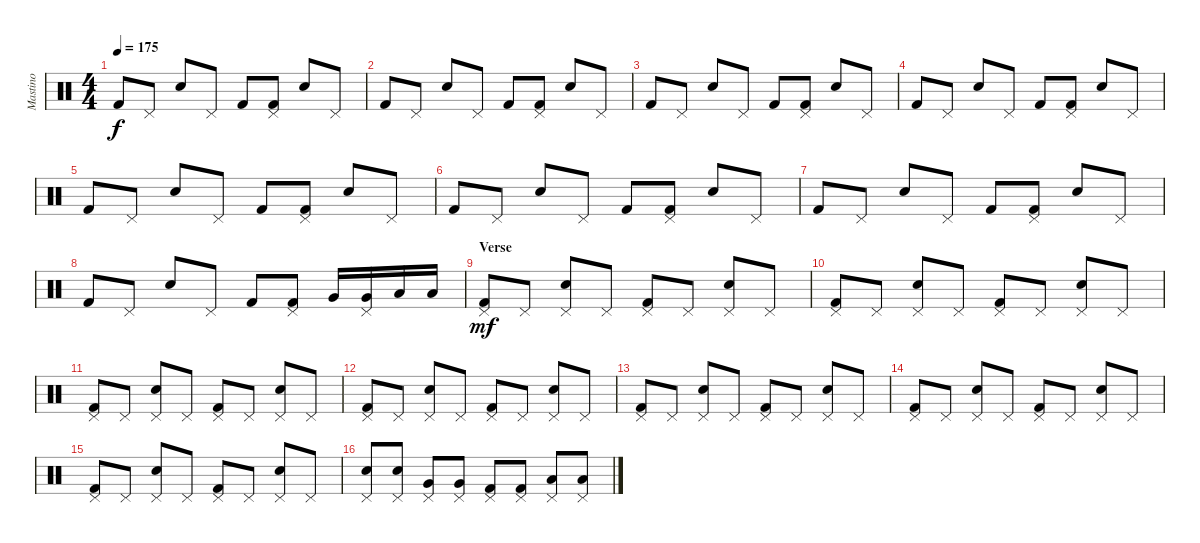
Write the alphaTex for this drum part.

\track ("Mastino" "Mastino") {instrument percussion}
\staff {score}
\articulation defaults
\ts (4 4)
\tempo 175
\clef neutral
\ks c "Kick (hit) 2".8{dy f} "Pedal Hi-Hat (hit)".8 "Electric Snare (hit)".8 "Pedal Hi-Hat (hit)".8 "Kick (hit) 2".8
("Pedal Hi-Hat (hit)" "Kick (hit) 2").8 "Electric Snare (hit)".8 "Pedal Hi-Hat (hit)".8 |
"Kick (hit) 2".8 "Pedal Hi-Hat (hit)".8 "Electric Snare (hit)".8 "Pedal Hi-Hat (hit)".8 "Kick (hit) 2".8 ("Pedal Hi-Hat (hit)" "Kick (hit) 2").8 "Electric Snare (hit)".8 "Pedal Hi-Hat (hit)".8 |
"Kick (hit) 2".8 "Pedal Hi-Hat (hit)".8 "Electric Snare (hit)".8 "Pedal Hi-Hat (hit)".8 "Kick (hit) 2".8 ("Pedal Hi-Hat (hit)" "Kick (hit) 2").8 "Electric Snare (hit)".8 "Pedal Hi-Hat (hit)".8 |
"Kick (hit) 2".8 "Pedal Hi-Hat (hit)".8 "Electric Snare (hit)".8 "Pedal Hi-Hat (hit)".8 "Kick (hit) 2".8 ("Pedal Hi-Hat (hit)" "Kick (hit) 2").8 "Electric Snare (hit)".8 "Pedal Hi-Hat (hit)".8 |
"Kick (hit) 2".8 "Pedal Hi-Hat (hit)".8 "Electric Snare (hit)".8 "Pedal Hi-Hat (hit)".8 "Kick (hit) 2".8 ("Pedal Hi-Hat (hit)" "Kick (hit) 2").8 "Electric Snare (hit)".8 "Pedal Hi-Hat (hit)".8 |
"Kick (hit) 2".8 "Pedal Hi-Hat (hit)".8 "Electric Snare (hit)".8 "Pedal Hi-Hat (hit)".8 "Kick (hit) 2".8 ("Pedal Hi-Hat (hit)" "Kick (hit) 2").8 "Electric Snare (hit)".8 "Pedal Hi-Hat (hit)".8 |
"Kick (hit) 2".8 "Pedal Hi-Hat (hit)".8 "Electric Snare (hit)".8 "Pedal Hi-Hat (hit)".8 "Kick (hit) 2".8 ("Pedal Hi-Hat (hit)" "Kick (hit) 2").8 "Electric Snare (hit)".8 "Pedal Hi-Hat (hit)".8 |
"Kick (hit) 2".8 "Pedal Hi-Hat (hit)".8 "Electric Snare (hit)".8 "Pedal Hi-Hat (hit)".8 "Kick (hit) 2".8 ("Pedal Hi-Hat (hit)" "Kick (hit) 2").8 "Very Low Tom (hit)".16 ("Pedal Hi-Hat (hit)" "Very Low Tom (hit)").16 "Low Floor Tom (hit)".16 "Low Floor Tom (hit)".16 |
\section ("" "Verse")
("Pedal Hi-Hat (hit)" "Kick (hit) 2").8{dy mf} "Pedal Hi-Hat (hit)".8 ("Pedal Hi-Hat (hit)" "Electric Snare (hit)").8 "Pedal Hi-Hat (hit)".8 ("Pedal Hi-Hat (hit)" "Kick (hit) 2").8 "Pedal Hi-Hat (hit)".8 ("Pedal Hi-Hat (hit)" "Electric Snare (hit)").8 "Pedal Hi-Hat (hit)".8 |
("Pedal Hi-Hat (hit)" "Kick (hit) 2").8 "Pedal Hi-Hat (hit)".8 ("Pedal Hi-Hat (hit)" "Electric Snare (hit)").8 "Pedal Hi-Hat (hit)".8 ("Pedal Hi-Hat (hit)" "Kick (hit) 2").8 "Pedal Hi-Hat (hit)".8 ("Pedal Hi-Hat (hit)" "Electric Snare (hit)").8 "Pedal Hi-Hat (hit)".8 |
("Pedal Hi-Hat (hit)" "Kick (hit) 2").8 "Pedal Hi-Hat (hit)".8 ("Pedal Hi-Hat (hit)" "Electric Snare (hit)").8 "Pedal Hi-Hat (hit)".8 ("Pedal Hi-Hat (hit)" "Kick (hit) 2").8 "Pedal Hi-Hat (hit)".8 ("Pedal Hi-Hat (hit)" "Electric Snare (hit)").8 "Pedal Hi-Hat (hit)".8 |
("Pedal Hi-Hat (hit)" "Kick (hit) 2").8 "Pedal Hi-Hat (hit)".8 ("Pedal Hi-Hat (hit)" "Electric Snare (hit)").8 "Pedal Hi-Hat (hit)".8 ("Pedal Hi-Hat (hit)" "Kick (hit) 2").8 "Pedal Hi-Hat (hit)".8 ("Pedal Hi-Hat (hit)" "Electric Snare (hit)").8 "Pedal Hi-Hat (hit)".8 |
("Pedal Hi-Hat (hit)" "Kick (hit) 2").8 "Pedal Hi-Hat (hit)".8 ("Pedal Hi-Hat (hit)" "Electric Snare (hit)").8 "Pedal Hi-Hat (hit)".8 ("Pedal Hi-Hat (hit)" "Kick (hit) 2").8 "Pedal Hi-Hat (hit)".8 ("Pedal Hi-Hat (hit)" "Electric Snare (hit)").8 "Pedal Hi-Hat (hit)".8 |
("Pedal Hi-Hat (hit)" "Kick (hit) 2").8 "Pedal Hi-Hat (hit)".8 ("Pedal Hi-Hat (hit)" "Electric Snare (hit)").8 "Pedal Hi-Hat (hit)".8 ("Pedal Hi-Hat (hit)" "Kick (hit) 2").8 "Pedal Hi-Hat (hit)".8 ("Pedal Hi-Hat (hit)" "Electric Snare (hit)").8 "Pedal Hi-Hat (hit)".8 |
("Pedal Hi-Hat (hit)" "Kick (hit) 2").8 "Pedal Hi-Hat (hit)".8 ("Pedal Hi-Hat (hit)" "Electric Snare (hit)").8 "Pedal Hi-Hat (hit)".8 ("Pedal Hi-Hat (hit)" "Kick (hit) 2").8 "Pedal Hi-Hat (hit)".8 ("Pedal Hi-Hat (hit)" "Electric Snare (hit)").8 "Pedal Hi-Hat (hit)".8 |
("Pedal Hi-Hat (hit)" "Electric Snare (hit)").8 ("Pedal Hi-Hat (hit)" "Electric Snare (hit)").8 ("Pedal Hi-Hat (hit)" "Very Low Tom (hit)").8 ("Pedal Hi-Hat (hit)" "Very Low Tom (hit)").8 ("Pedal Hi-Hat (hit)" "Kick (hit) 2").8 ("Pedal Hi-Hat (hit)" "Kick (hit) 2").8 ("Pedal Hi-Hat (hit)" "Low Tom (hit)").8 ("Pedal Hi-Hat (hit)" "Low Tom (hit)").8
